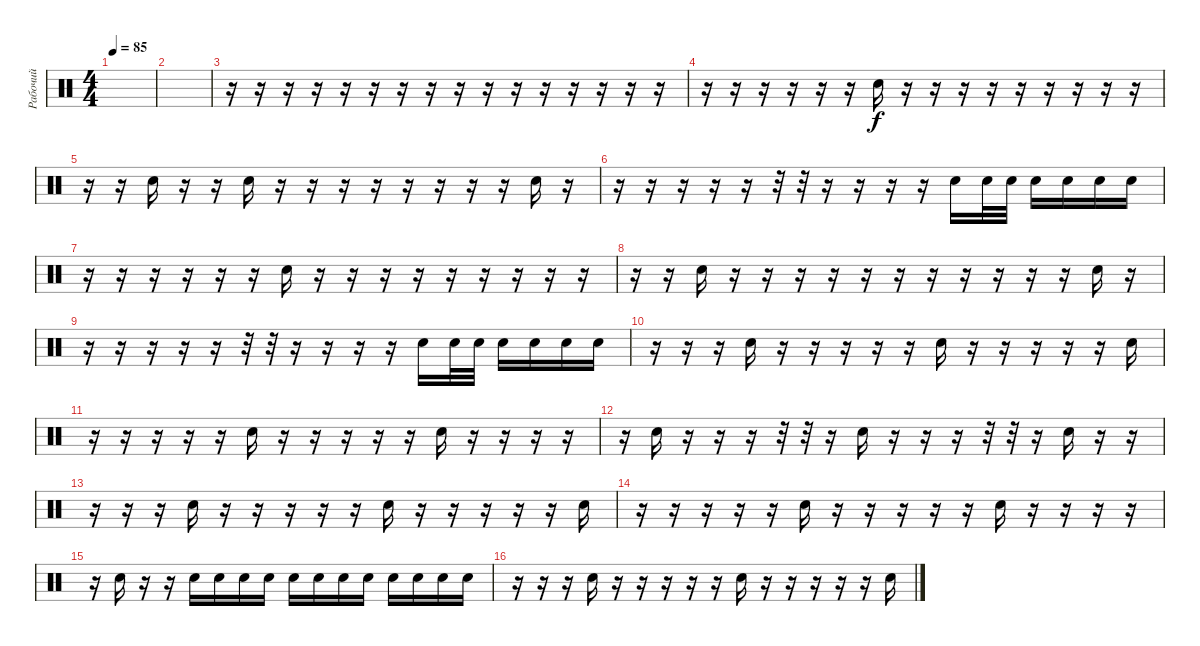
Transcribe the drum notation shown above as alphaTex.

\track ("Рабочий" "Рабочий") {instrument percussion}
\staff {score}
\articulation defaults
\ts (4 4)
\tempo 85
\clef neutral
\ks c
|
|
r.16 r.16 r.16 r.16 r.16 r.16 r.16 r.16 r.16 r.16 r.16 r.16 r.16 r.16 r.16 r.16 |
r.16 r.16 r.16 r.16 r.16 r.16 "Snare (hit) 2".16 r.16 r.16 r.16 r.16 r.16 r.16 r.16 r.16 r.16 |
r.16 r.16 "Snare (hit) 2".16 r.16 r.16 "Snare (hit) 2".16 r.16 r.16 r.16 r.16 r.16 r.16 r.16 r.16 "Snare (hit) 2".16 r.16 |
r.16 r.16 r.16 r.16 r.16 r.32 r.32 r.16 r.16 r.16 r.16 "Snare (hit) 2".16 "Snare (hit) 2".32 "Snare (hit) 2".32 "Snare (hit) 2".16 "Snare (hit) 2".16 "Snare (hit) 2".16 "Snare (hit) 2".16 |
r.16 r.16 r.16 r.16 r.16 r.16 "Snare (hit) 2".16 r.16 r.16 r.16 r.16 r.16 r.16 r.16 r.16 r.16 |
r.16 r.16 "Snare (hit) 2".16 r.16 r.16 r.16 r.16 r.16 r.16 r.16 r.16 r.16 r.16 r.16 "Snare (hit) 2".16 r.16 |
r.16 r.16 r.16 r.16 r.16 r.32 r.32 r.16 r.16 r.16 r.16 "Snare (hit) 2".16 "Snare (hit) 2".32 "Snare (hit) 2".32 "Snare (hit) 2".16 "Snare (hit) 2".16 "Snare (hit) 2".16 "Snare (hit) 2".16 |
r.16 r.16 r.16 "Snare (hit) 2".16 r.16 r.16 r.16 r.16 r.16 "Snare (hit) 2".16 r.16 r.16 r.16 r.16 r.16 "Snare (hit) 2".16 |
r.16 r.16 r.16 r.16 r.16 "Snare (hit) 2".16 r.16 r.16 r.16 r.16 r.16 "Snare (hit) 2".16 r.16 r.16 r.16 r.16 |
r.16 "Snare (hit) 2".16 r.16 r.16 r.16 r.32 r.32 r.16 "Snare (hit) 2".16 r.16 r.16 r.16 r.32 r.32 r.16 "Snare (hit) 2".16 r.16 r.16 |
r.16 r.16 r.16 "Snare (hit) 2".16 r.16 r.16 r.16 r.16 r.16 "Snare (hit) 2".16 r.16 r.16 r.16 r.16 r.16 "Snare (hit) 2".16 |
r.16 r.16 r.16 r.16 r.16 "Snare (hit) 2".16 r.16 r.16 r.16 r.16 r.16 "Snare (hit) 2".16 r.16 r.16 r.16 r.16 |
r.16 "Snare (hit) 2".16 r.16 r.16{volume 9} "Snare (hit) 2".16{volume 16} "Snare (hit) 2".16 "Snare (hit) 2".16 "Snare (hit) 2".16 "Snare (hit) 2".16 "Snare (hit) 2".16 "Snare (hit) 2".16 "Snare (hit) 2".16 "Snare (hit) 2".16 "Snare (hit) 2".16 "Snare (hit) 2".16 "Snare (hit) 2".16{volume 16} |
r.16 r.16 r.16 "Snare (hit) 2".16 r.16 r.16 r.16 r.16 r.16 "Snare (hit) 2".16 r.16 r.16 r.16 r.16 r.16 "Snare (hit) 2".16
